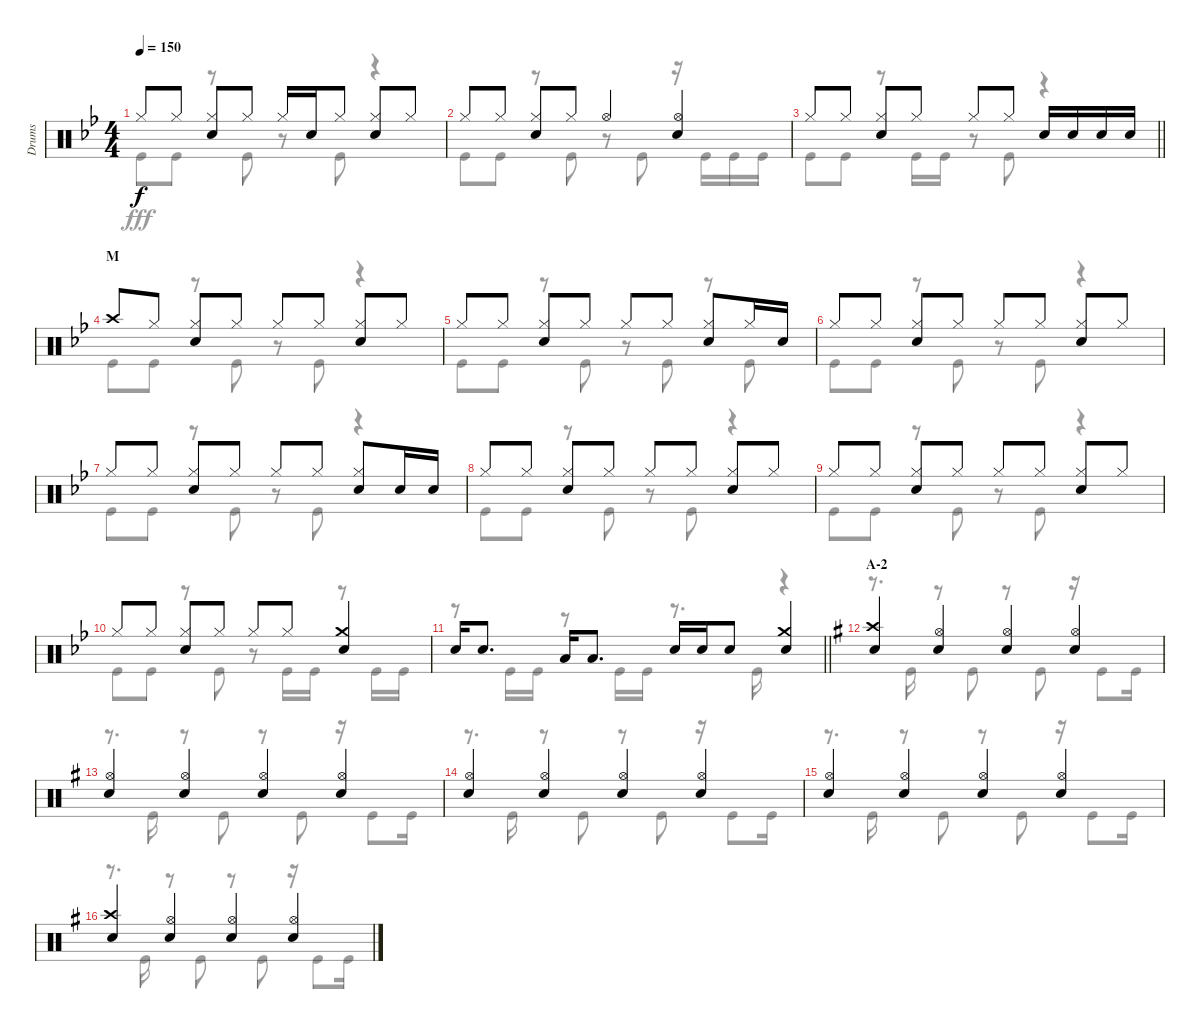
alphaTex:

\track ("Drums" "Drums") {instrument percussion}
\staff {score}
\articulation defaults
\voice
\ts (4 4)
\tempo 150
\clef neutral
\ks bb "Hi-Hat (closed)".8{dy f} "Hi-Hat (closed)".8
("Hi-Hat (closed)" "Snare (hit) 2").8 "Hi-Hat (closed)".8 "Hi-Hat (closed)".16 "Snare (hit) 2".16 "Hi-Hat (closed)".8 ("Hi-Hat (closed)" "Snare (hit) 2").8 "Hi-Hat (closed)".8 |
"Hi-Hat (closed)".8 "Hi-Hat (closed)".8 ("Hi-Hat (closed)" "Snare (hit) 2").8 "Hi-Hat (closed)".8 "Hi-Hat (open)".4 ("Hi-Hat (open)" "Snare (hit) 2").4 |
\barLineRight lightlight "Hi-Hat (closed)".8 "Hi-Hat (closed)".8
("Hi-Hat (closed)" "Snare (hit) 2").8 "Hi-Hat (closed)".8 "Hi-Hat (closed)".8 "Hi-Hat (closed)".8 "Snare (hit) 2".16 "Snare (hit) 2".16 "Snare (hit) 2".16 "Snare (hit) 2".16 |
\section ("" "M")
"Crash high (hit)".8 "Hi-Hat (closed)".8 ("Hi-Hat (closed)" "Snare (hit) 2").8 "Hi-Hat (closed)".8 "Hi-Hat (closed)".8 "Hi-Hat (closed)".8 ("Hi-Hat (closed)" "Snare (hit) 2").8 "Hi-Hat (closed)".8 |
"Hi-Hat (closed)".8 "Hi-Hat (closed)".8 ("Hi-Hat (closed)" "Snare (hit) 2").8 "Hi-Hat (closed)".8 "Hi-Hat (closed)".8 "Hi-Hat (closed)".8 ("Hi-Hat (closed)" "Snare (hit) 2").8 "Hi-Hat (closed)".16 "Snare (hit) 2".16 |
"Hi-Hat (closed)".8 "Hi-Hat (closed)".8 ("Hi-Hat (closed)" "Snare (hit) 2").8 "Hi-Hat (closed)".8 "Hi-Hat (closed)".8 "Hi-Hat (closed)".8 ("Hi-Hat (closed)" "Snare (hit) 2").8 "Hi-Hat (closed)".8 |
"Hi-Hat (closed)".8 "Hi-Hat (closed)".8 ("Hi-Hat (closed)" "Snare (hit) 2").8 "Hi-Hat (closed)".8 "Hi-Hat (closed)".8 "Hi-Hat (closed)".8 ("Hi-Hat (closed)" "Snare (hit) 2").8 "Snare (hit) 2".16 "Snare (hit) 2".16 |
"Hi-Hat (closed)".8 "Hi-Hat (closed)".8 ("Hi-Hat (closed)" "Snare (hit) 2").8 "Hi-Hat (closed)".8 "Hi-Hat (closed)".8 "Hi-Hat (closed)".8 ("Hi-Hat (closed)" "Snare (hit) 2").8 "Hi-Hat (closed)".8 |
"Hi-Hat (closed)".8 "Hi-Hat (closed)".8 ("Hi-Hat (closed)" "Snare (hit) 2").8 "Hi-Hat (closed)".8 "Hi-Hat (closed)".8 "Hi-Hat (closed)".8 ("Hi-Hat (closed)" "Snare (hit) 2").8 "Hi-Hat (closed)".8 |
"Hi-Hat (closed)".8 "Hi-Hat (closed)".8 ("Hi-Hat (closed)" "Snare (hit) 2").8 "Hi-Hat (closed)".8 "Hi-Hat (closed)".8 "Hi-Hat (closed)".8 ("Crash medium (hit)" "Snare (hit) 2").4 |
\barLineRight lightlight "Snare (hit) 2".16 "Snare (hit) 2".8{d} "Low Tom (hit)".16 "Low Tom (hit)".8{d} "Snare (hit) 2".16 "Snare (hit) 2".16 "Snare (hit) 2".8
("Crash medium (hit)" "Snare (hit) 2").4 |
\section ("" "A-2")
\ks g
("Crash high (hit)" "Snare (hit) 2").4 ("Hi-Hat (open)" "Snare (hit) 2").4 ("Hi-Hat (open)" "Snare (hit) 2").4 ("Hi-Hat (open)" "Snare (hit) 2").4 |
("Hi-Hat (open)" "Snare (hit) 2").4 ("Hi-Hat (open)" "Snare (hit) 2").4 ("Hi-Hat (open)" "Snare (hit) 2").4 ("Hi-Hat (open)" "Snare (hit) 2").4 |
("Hi-Hat (open)" "Snare (hit) 2").4 ("Hi-Hat (open)" "Snare (hit) 2").4 ("Hi-Hat (open)" "Snare (hit) 2").4 ("Hi-Hat (open)" "Snare (hit) 2").4 |
("Hi-Hat (open)" "Snare (hit) 2").4 ("Hi-Hat (open)" "Snare (hit) 2").4 ("Hi-Hat (open)" "Snare (hit) 2").4 ("Hi-Hat (open)" "Snare (hit) 2").4 |
("Crash high (hit)" "Snare (hit) 2").4 ("Hi-Hat (open)" "Snare (hit) 2").4 ("Hi-Hat (open)" "Snare (hit) 2").4 ("Hi-Hat (open)" "Snare (hit) 2").4
\voice
\clef neutral
\ottava regular
\simile none
\ks bb "Kick (hit)".8{dy fff} "Kick (hit)".8
r.8 "Kick (hit)".8 r.8 "Kick (hit)".8 r.4 |
"Kick (hit)".8 "Kick (hit)".8 r.8 "Kick (hit)".8 r.8 "Kick (hit)".8 r.16 "Kick (hit)".16 "Kick (hit)".16 "Kick (hit)".16 |
\barLineRight lightlight "Kick (hit)".8 "Kick (hit)".8
r.8 "Kick (hit)".16 "Kick (hit)".16 r.8 "Kick (hit)".8 r.4 |
"Kick (hit)".8 "Kick (hit)".8 r.8 "Kick (hit)".8 r.8 "Kick (hit)".8 r.4 |
"Kick (hit)".8 "Kick (hit)".8 r.8 "Kick (hit)".8 r.8 "Kick (hit)".8 r.8 "Kick (hit)".8 |
"Kick (hit)".8 "Kick (hit)".8 r.8 "Kick (hit)".8 r.8 "Kick (hit)".8 r.4 |
"Kick (hit)".8 "Kick (hit)".8 r.8 "Kick (hit)".8 r.8 "Kick (hit)".8 r.4 |
"Kick (hit)".8 "Kick (hit)".8 r.8 "Kick (hit)".8 r.8 "Kick (hit)".8 r.4 |
"Kick (hit)".8 "Kick (hit)".8 r.8 "Kick (hit)".8 r.8 "Kick (hit)".8 r.4 |
"Kick (hit)".8 "Kick (hit)".8 r.8 "Kick (hit)".8 r.8 "Kick (hit)".16 "Kick (hit)".16 r.8 "Kick (hit)".16 "Kick (hit)".16 |
\barLineRight lightlight
r.8 "Kick (hit)".16 "Kick (hit)".16 r.8 "Kick (hit)".16 "Kick (hit)".16 r.8{d} "Kick (hit)".16 r.4 |
\ks g
r.8{d} "Kick (hit)".16 r.8 "Kick (hit)".8 r.8 "Kick (hit)".8 r.16 "Kick (hit)".8 "Kick (hit)".16 |
r.8{d} "Kick (hit)".16 r.8 "Kick (hit)".8 r.8 "Kick (hit)".8 r.16 "Kick (hit)".8 "Kick (hit)".16 |
r.8{d} "Kick (hit)".16 r.8 "Kick (hit)".8 r.8 "Kick (hit)".8 r.16 "Kick (hit)".8 "Kick (hit)".16 |
r.8{d} "Kick (hit)".16 r.8 "Kick (hit)".8 r.8 "Kick (hit)".8 r.16 "Kick (hit)".8 "Kick (hit)".16 |
r.8{d} "Kick (hit)".16 r.8 "Kick (hit)".8 r.8 "Kick (hit)".8 r.16 "Kick (hit)".8 "Kick (hit)".16
